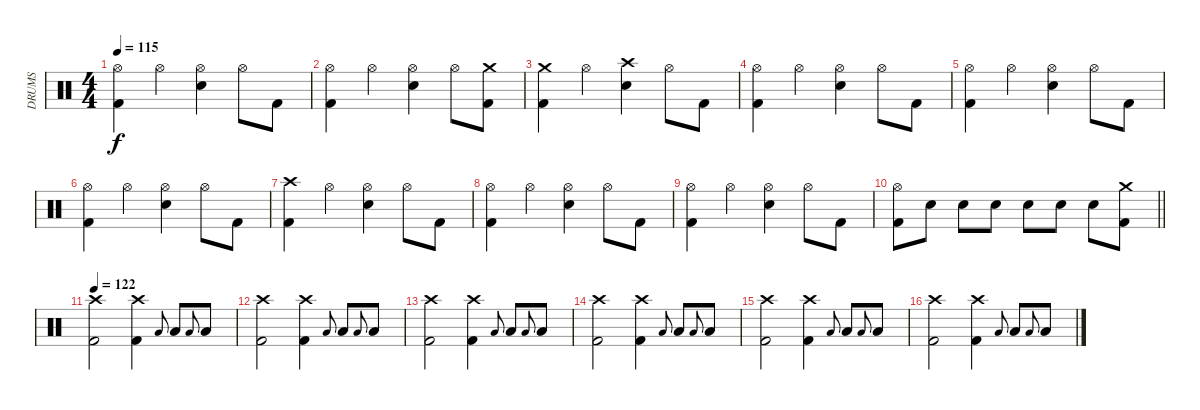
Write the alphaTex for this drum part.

\track ("DRUMS" "DRUMS") {instrument percussion}
\staff {score}
\articulation defaults
\ts (4 4)
\tempo 115
\clef neutral
\ks c
("Hi-Hat (open)" "Kick (hit) 2").4{dy f} "Hi-Hat (open)".4 ("Hi-Hat (open)" "Snare (hit) 2").4 "Hi-Hat (open)".8 "Kick (hit) 2".8 |
("Hi-Hat (open)" "Kick (hit) 2").4 "Hi-Hat (open)".4 ("Hi-Hat (open)" "Snare (hit) 2").4 "Hi-Hat (open)".8 ("Crash medium (hit)" "Kick (hit) 2").8 |
("Crash medium (hit)" "Kick (hit) 2").4 "Hi-Hat (open)".4 ("Crash high (hit)" "Snare (hit) 2").4 "Hi-Hat (open)".8 "Kick (hit) 2".8 |
("Hi-Hat (open)" "Kick (hit) 2").4 "Hi-Hat (open)".4 ("Hi-Hat (open)" "Snare (hit) 2").4 "Hi-Hat (open)".8 "Kick (hit) 2".8 |
("Hi-Hat (open)" "Kick (hit) 2").4 "Hi-Hat (open)".4 ("Hi-Hat (open)" "Snare (hit) 2").4 "Hi-Hat (open)".8 "Kick (hit) 2".8 |
("Hi-Hat (open)" "Kick (hit) 2").4 "Hi-Hat (open)".4 ("Hi-Hat (open)" "Snare (hit) 2").4 "Hi-Hat (open)".8 "Kick (hit) 2".8 |
("Crash high (hit)" "Kick (hit) 2").4 "Hi-Hat (open)".4 ("Hi-Hat (open)" "Snare (hit) 2").4 "Hi-Hat (open)".8 "Kick (hit) 2".8 |
("Hi-Hat (open)" "Kick (hit) 2").4 "Hi-Hat (open)".4 ("Hi-Hat (open)" "Snare (hit) 2").4 "Hi-Hat (open)".8 "Kick (hit) 2".8 |
("Hi-Hat (open)" "Kick (hit) 2").4 "Hi-Hat (open)".4 ("Hi-Hat (open)" "Snare (hit) 2").4 "Hi-Hat (open)".8 "Kick (hit) 2".8 |
\barLineRight lightlight
("Hi-Hat (open)" "Kick (hit) 2").8 "Snare (hit) 2".8 "Snare (hit) 2".8 "Snare (hit) 2".8 "Snare (hit) 2".8 "Snare (hit) 2".8 "Snare (hit) 2".8 ("Crash medium (hit)" "Kick (hit) 2").8 |
\tempo 122
("Crash high (hit)" "Kick (hit) 2").2 ("Crash high (hit)" "Kick (hit) 2").4 "Low Floor Tom (hit)".8{gr onbeat} "Low Floor Tom (hit)".8 "Low Floor Tom (hit)".8{gr onbeat} "Low Floor Tom (hit)".8 |
("Crash high (hit)" "Kick (hit) 2").2 ("Crash high (hit)" "Kick (hit) 2").4 "Low Floor Tom (hit)".8{gr onbeat} "Low Floor Tom (hit)".8 "Low Floor Tom (hit)".8{gr onbeat} "Low Floor Tom (hit)".8 |
("Crash high (hit)" "Kick (hit) 2").2 ("Crash high (hit)" "Kick (hit) 2").4 "Low Floor Tom (hit)".8{gr onbeat} "Low Floor Tom (hit)".8 "Low Floor Tom (hit)".8{gr onbeat} "Low Floor Tom (hit)".8 |
("Crash high (hit)" "Kick (hit) 2").2 ("Crash high (hit)" "Kick (hit) 2").4 "Low Floor Tom (hit)".8{gr onbeat} "Low Floor Tom (hit)".8 "Low Floor Tom (hit)".8{gr onbeat} "Low Floor Tom (hit)".8 |
("Crash high (hit)" "Kick (hit) 2").2 ("Crash high (hit)" "Kick (hit) 2").4 "Low Floor Tom (hit)".8{gr onbeat} "Low Floor Tom (hit)".8 "Low Floor Tom (hit)".8{gr onbeat} "Low Floor Tom (hit)".8 |
("Crash high (hit)" "Kick (hit) 2").2 ("Crash high (hit)" "Kick (hit) 2").4 "Low Floor Tom (hit)".8{gr onbeat} "Low Floor Tom (hit)".8 "Low Floor Tom (hit)".8{gr onbeat} "Low Floor Tom (hit)".8
